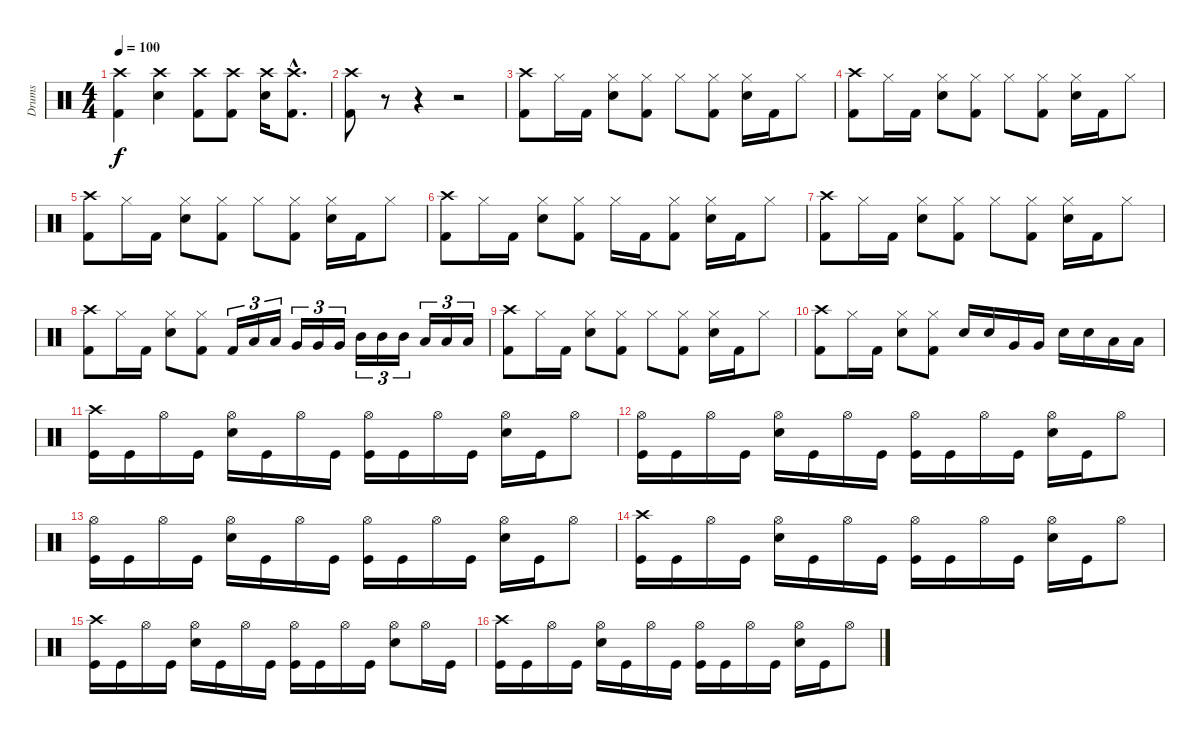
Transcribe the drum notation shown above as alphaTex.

\track ("Drums" "Drums") {instrument percussion}
\staff {score}
\articulation defaults
\ts (4 4)
\tempo 100
\clef neutral
\ks c
("Crash high (hit)" "Kick (hit) 2").4{dy f} ("Crash high (hit)" "Electric Snare (hit)").4 ("Crash high (hit)" "Kick (hit) 2").8 ("Crash high (hit)" "Kick (hit) 2").8 ("Crash high (hit)" "Electric Snare (hit)").16 ("Crash high (hit)"{hac} "Kick (hit) 2"{hac}).8{d} |
("Crash high (hit)" "Kick (hit) 2").8 r.8 r.4 r.2 |
("Crash high (hit)" "Kick (hit) 2").8 "Hi-Hat (closed)".16 "Kick (hit) 2".16 ("Hi-Hat (closed)" "Electric Snare (hit)").8 ("Hi-Hat (closed)" "Kick (hit) 2").8 "Hi-Hat (closed)".8 ("Hi-Hat (closed)" "Kick (hit) 2").8 ("Hi-Hat (closed)" "Electric Snare (hit)").16 "Kick (hit) 2".16 "Hi-Hat (closed)".8 |
("Crash high (hit)" "Kick (hit) 2").8 "Hi-Hat (closed)".16 "Kick (hit) 2".16 ("Hi-Hat (closed)" "Electric Snare (hit)").8 ("Hi-Hat (closed)" "Kick (hit) 2").8 "Hi-Hat (closed)".8 ("Hi-Hat (closed)" "Kick (hit) 2").8 ("Hi-Hat (closed)" "Electric Snare (hit)").16 "Kick (hit) 2".16 "Hi-Hat (closed)".8 |
("Crash high (hit)" "Kick (hit) 2").8 "Hi-Hat (closed)".16 "Kick (hit) 2".16 ("Hi-Hat (closed)" "Electric Snare (hit)").8 ("Hi-Hat (closed)" "Kick (hit) 2").8 "Hi-Hat (closed)".8 ("Hi-Hat (closed)" "Kick (hit) 2").8 ("Hi-Hat (closed)" "Electric Snare (hit)").16 "Kick (hit) 2".16 "Hi-Hat (closed)".8 |
("Crash high (hit)" "Kick (hit) 2").8 "Hi-Hat (closed)".16 "Kick (hit) 2".16 ("Hi-Hat (closed)" "Electric Snare (hit)").8 ("Hi-Hat (closed)" "Kick (hit) 2").8 "Hi-Hat (closed)".16 "Kick (hit) 2".16 ("Hi-Hat (closed)" "Kick (hit) 2").8 ("Hi-Hat (closed)" "Electric Snare (hit)").16 "Kick (hit) 2".16 "Hi-Hat (closed)".8 |
("Crash high (hit)" "Kick (hit) 2").8 "Hi-Hat (closed)".16 "Kick (hit) 2".16 ("Hi-Hat (closed)" "Electric Snare (hit)").8 ("Hi-Hat (closed)" "Kick (hit) 2").8 "Hi-Hat (closed)".8 ("Hi-Hat (closed)" "Kick (hit) 2").8 ("Hi-Hat (closed)" "Electric Snare (hit)").16 "Kick (hit) 2".16 "Hi-Hat (closed)".8 |
("Crash high (hit)" "Kick (hit) 2").8 "Hi-Hat (closed)".16 "Kick (hit) 2".16 ("Hi-Hat (closed)" "Electric Snare (hit)").8 ("Hi-Hat (closed)" "Kick (hit) 2").8 "Kick (hit) 2".16{tu (3 2)} "Low Tom (hit)".16{tu (3 2)} "Low Tom (hit)".16{tu (3 2)} "Very Low Tom (hit)".16{tu (3 2)} "Very Low Tom (hit)".16{tu (3 2)} "Very Low Tom (hit)".16{tu (3 2)} "Mid Tom (hit)".16{tu (3 2)} "Mid Tom (hit)".16{tu (3 2)} "Mid Tom (hit)".16{tu (3 2)} "Low Tom (hit)".16{tu (3 2)} "Low Tom (hit)".16{tu (3 2)} "Low Tom (hit)".16{tu (3 2)} |
("Crash high (hit)" "Kick (hit) 2").8 "Hi-Hat (closed)".16 "Kick (hit) 2".16 ("Hi-Hat (closed)" "Electric Snare (hit)").8 ("Hi-Hat (closed)" "Kick (hit) 2").8 "Hi-Hat (closed)".8 ("Hi-Hat (closed)" "Kick (hit) 2").8 ("Hi-Hat (closed)" "Electric Snare (hit)").16 "Kick (hit) 2".16 "Hi-Hat (closed)".8 |
("Crash high (hit)" "Kick (hit) 2").8 "Hi-Hat (closed)".16 "Kick (hit) 2".16 ("Hi-Hat (closed)" "Electric Snare (hit)").8 ("Hi-Hat (closed)" "Kick (hit) 2").8 "Electric Snare (hit)".16 "Electric Snare (hit)".16 "Very Low Tom (hit)".16 "Very Low Tom (hit)".16 "Electric Snare (hit)".16 "Electric Snare (hit)".16 "Low Floor Tom (hit)".16 "Low Floor Tom (hit)".16 |
("Crash high (hit)" "Kick (hit)").16 "Kick (hit)".16 "Hi-Hat (open)".16 "Kick (hit)".16 ("Hi-Hat (open)" "Electric Snare (hit)").16 "Kick (hit)".16 "Hi-Hat (open)".16 "Kick (hit)".16 ("Hi-Hat (open)" "Kick (hit)").16 "Kick (hit)".16 "Hi-Hat (open)".16 "Kick (hit)".16 ("Hi-Hat (open)" "Electric Snare (hit)").16 "Kick (hit)".16 "Hi-Hat (open)".8 |
("Hi-Hat (open)" "Kick (hit)").16 "Kick (hit)".16 "Hi-Hat (open)".16 "Kick (hit)".16 ("Hi-Hat (open)" "Electric Snare (hit)").16 "Kick (hit)".16 "Hi-Hat (open)".16 "Kick (hit)".16 ("Hi-Hat (open)" "Kick (hit)").16 "Kick (hit)".16 "Hi-Hat (open)".16 "Kick (hit)".16 ("Hi-Hat (open)" "Electric Snare (hit)").16 "Kick (hit)".16 "Hi-Hat (open)".8 |
("Hi-Hat (open)" "Kick (hit)").16 "Kick (hit)".16 "Hi-Hat (open)".16 "Kick (hit)".16 ("Hi-Hat (open)" "Electric Snare (hit)").16 "Kick (hit)".16 "Hi-Hat (open)".16 "Kick (hit)".16 ("Hi-Hat (open)" "Kick (hit)").16 "Kick (hit)".16 "Hi-Hat (open)".16 "Kick (hit)".16 ("Hi-Hat (open)" "Electric Snare (hit)").16 "Kick (hit)".16 "Hi-Hat (open)".8 |
("Crash high (hit)" "Kick (hit)").16 "Kick (hit)".16 "Hi-Hat (open)".16 "Kick (hit)".16 ("Hi-Hat (open)" "Electric Snare (hit)").16 "Kick (hit)".16 "Hi-Hat (open)".16 "Kick (hit)".16 ("Hi-Hat (open)" "Kick (hit)").16 "Kick (hit)".16 "Hi-Hat (open)".16 "Kick (hit)".16 ("Hi-Hat (open)" "Electric Snare (hit)").16 "Kick (hit)".16 "Hi-Hat (open)".8 |
("Crash high (hit)" "Kick (hit)").16 "Kick (hit)".16 "Hi-Hat (open)".16 "Kick (hit)".16 ("Hi-Hat (open)" "Electric Snare (hit)").16 "Kick (hit)".16 "Hi-Hat (open)".16 "Kick (hit)".16 ("Hi-Hat (open)" "Kick (hit)").16 "Kick (hit)".16 "Hi-Hat (open)".16 "Kick (hit)".16 ("Hi-Hat (open)" "Electric Snare (hit)").8 "Hi-Hat (open)".16 "Kick (hit)".16 |
("Crash high (hit)" "Kick (hit)").16 "Kick (hit)".16 "Hi-Hat (open)".16 "Kick (hit)".16 ("Hi-Hat (open)" "Electric Snare (hit)").16 "Kick (hit)".16 "Hi-Hat (open)".16 "Kick (hit)".16 ("Hi-Hat (open)" "Kick (hit)").16 "Kick (hit)".16 "Hi-Hat (open)".16 "Kick (hit)".16 ("Hi-Hat (open)" "Electric Snare (hit)").16 "Kick (hit)".16 "Hi-Hat (open)".8
